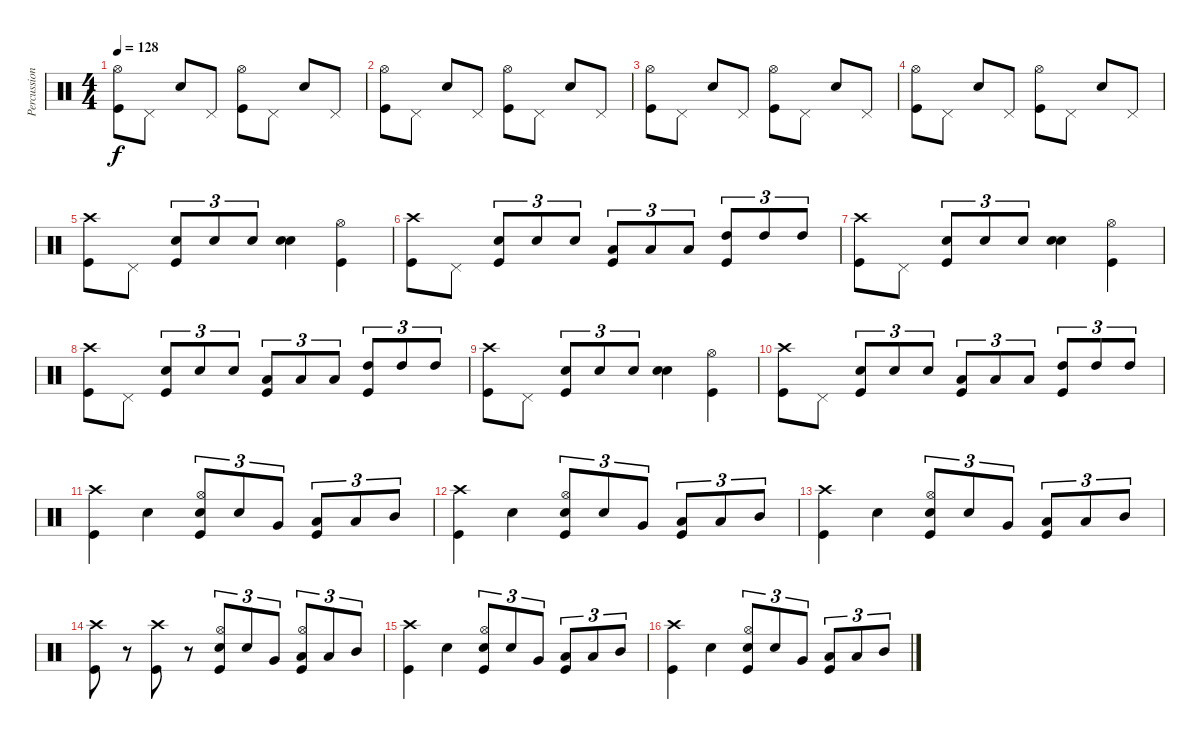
\track ("Percussion" "Percussion") {instrument percussion}
\staff {score}
\articulation defaults
\ts (4 4)
\tempo 128
\clef neutral
\ks c
("Kick (hit)" "Hi-Hat (open)").8{dy f} "Pedal Hi-Hat (hit)".8 "Snare (hit) 2".8 "Pedal Hi-Hat (hit)".8 ("Kick (hit)" "Hi-Hat (open)").8 "Pedal Hi-Hat (hit)".8 "Snare (hit) 2".8 "Pedal Hi-Hat (hit)".8 |
("Kick (hit)" "Hi-Hat (open)").8 "Pedal Hi-Hat (hit)".8 "Snare (hit) 2".8 "Pedal Hi-Hat (hit)".8 ("Kick (hit)" "Hi-Hat (open)").8 "Pedal Hi-Hat (hit)".8 "Snare (hit) 2".8 "Pedal Hi-Hat (hit)".8 |
("Kick (hit)" "Hi-Hat (open)").8 "Pedal Hi-Hat (hit)".8 "Snare (hit) 2".8 "Pedal Hi-Hat (hit)".8 ("Kick (hit)" "Hi-Hat (open)").8 "Pedal Hi-Hat (hit)".8 "Snare (hit) 2".8 "Pedal Hi-Hat (hit)".8 |
("Kick (hit)" "Hi-Hat (open)").8 "Pedal Hi-Hat (hit)".8 "Snare (hit) 2".8 "Pedal Hi-Hat (hit)".8 ("Kick (hit)" "Hi-Hat (open)").8 "Pedal Hi-Hat (hit)".8 "Snare (hit) 2".8 "Pedal Hi-Hat (hit)".8 |
("Kick (hit)" "Crash high (hit)").8 "Pedal Hi-Hat (hit)".8 ("Snare (hit) 2" "Kick (hit)").8{tu (3 2)} "Snare (hit) 2".8{tu (3 2)} "Snare (hit) 2".8{tu (3 2)} ("Snare (hit) 2" "Snare (hit) 2").4 ("Kick (hit)" "Hi-Hat (open)").4 |
("Kick (hit)" "Crash high (hit)").8 "Pedal Hi-Hat (hit)".8 ("Snare (hit) 2" "Kick (hit)").8{tu (3 2)} "Snare (hit) 2".8{tu (3 2)} "Snare (hit) 2".8{tu (3 2)} ("Low Tom (hit)" "Kick (hit)").8{tu (3 2)} "Low Tom (hit)".8{tu (3 2)} "Low Tom (hit)".8{tu (3 2)} ("High Tom (hit)" "Kick (hit)").8{tu (3 2)} "High Tom (hit)".8{tu (3 2)} "High Tom (hit)".8{tu (3 2)} |
("Kick (hit)" "Crash high (hit)").8 "Pedal Hi-Hat (hit)".8 ("Snare (hit) 2" "Kick (hit)").8{tu (3 2)} "Snare (hit) 2".8{tu (3 2)} "Snare (hit) 2".8{tu (3 2)} ("Snare (hit) 2" "Snare (hit) 2").4 ("Kick (hit)" "Hi-Hat (open)").4 |
("Kick (hit)" "Crash high (hit)").8 "Pedal Hi-Hat (hit)".8 ("Snare (hit) 2" "Kick (hit)").8{tu (3 2)} "Snare (hit) 2".8{tu (3 2)} "Snare (hit) 2".8{tu (3 2)} ("Low Tom (hit)" "Kick (hit)").8{tu (3 2)} "Low Tom (hit)".8{tu (3 2)} "Low Tom (hit)".8{tu (3 2)} ("High Tom (hit)" "Kick (hit)").8{tu (3 2)} "High Tom (hit)".8{tu (3 2)} "High Tom (hit)".8{tu (3 2)} |
("Kick (hit)" "Crash high (hit)").8 "Pedal Hi-Hat (hit)".8 ("Snare (hit) 2" "Kick (hit)").8{tu (3 2)} "Snare (hit) 2".8{tu (3 2)} "Snare (hit) 2".8{tu (3 2)} ("Snare (hit) 2" "Snare (hit) 2").4 ("Kick (hit)" "Hi-Hat (open)").4 |
("Kick (hit)" "Crash high (hit)").8 "Pedal Hi-Hat (hit)".8 ("Snare (hit) 2" "Kick (hit)").8{tu (3 2)} "Snare (hit) 2".8{tu (3 2)} "Snare (hit) 2".8{tu (3 2)} ("Low Tom (hit)" "Kick (hit)").8{tu (3 2)} "Low Tom (hit)".8{tu (3 2)} "Low Tom (hit)".8{tu (3 2)} ("High Tom (hit)" "Kick (hit)").8{tu (3 2)} "High Tom (hit)".8{tu (3 2)} "High Tom (hit)".8{tu (3 2)} |
("Kick (hit)" "Crash high (hit)").4 "Snare (hit) 2".4 ("Kick (hit)" "Snare (hit) 2" "Hi-Hat (open)").8{tu (3 2)} "Snare (hit) 2".8{tu (3 2)} "Very Low Tom (hit)".8{tu (3 2)} ("Kick (hit)" "Low Tom (hit)").8{tu (3 2)} "Low Tom (hit)".8{tu (3 2)} "Mid Tom (hit)".8{tu (3 2)} |
("Kick (hit)" "Crash high (hit)").4 "Snare (hit) 2".4 ("Kick (hit)" "Snare (hit) 2" "Hi-Hat (open)").8{tu (3 2)} "Snare (hit) 2".8{tu (3 2)} "Very Low Tom (hit)".8{tu (3 2)} ("Kick (hit)" "Low Tom (hit)").8{tu (3 2)} "Low Tom (hit)".8{tu (3 2)} "Mid Tom (hit)".8{tu (3 2)} |
("Kick (hit)" "Crash high (hit)").4 "Snare (hit) 2".4 ("Kick (hit)" "Snare (hit) 2" "Hi-Hat (open)").8{tu (3 2)} "Snare (hit) 2".8{tu (3 2)} "Very Low Tom (hit)".8{tu (3 2)} ("Kick (hit)" "Low Tom (hit)").8{tu (3 2)} "Low Tom (hit)".8{tu (3 2)} "Mid Tom (hit)".8{tu (3 2)} |
("Kick (hit)" "Crash high (hit)").8 r.8 ("Kick (hit)" "Crash high (hit)").8 r.8 ("Snare (hit) 2" "Kick (hit)" "Hi-Hat (open)").8{tu (3 2)} "Snare (hit) 2".8{tu (3 2)} "Very Low Tom (hit)".8{tu (3 2)} ("Low Tom (hit)" "Kick (hit)" "Hi-Hat (open)").8{tu (3 2)} "Low Tom (hit)".8{tu (3 2)} "Mid Tom (hit)".8{tu (3 2)} |
("Kick (hit)" "Crash high (hit)").4 "Snare (hit) 2".4 ("Kick (hit)" "Snare (hit) 2" "Hi-Hat (open)").8{tu (3 2)} "Snare (hit) 2".8{tu (3 2)} "Very Low Tom (hit)".8{tu (3 2)} ("Kick (hit)" "Low Tom (hit)").8{tu (3 2)} "Low Tom (hit)".8{tu (3 2)} "Mid Tom (hit)".8{tu (3 2)} |
("Kick (hit)" "Crash high (hit)").4 "Snare (hit) 2".4 ("Kick (hit)" "Snare (hit) 2" "Hi-Hat (open)").8{tu (3 2)} "Snare (hit) 2".8{tu (3 2)} "Very Low Tom (hit)".8{tu (3 2)} ("Kick (hit)" "Low Tom (hit)").8{tu (3 2)} "Low Tom (hit)".8{tu (3 2)} "Mid Tom (hit)".8{tu (3 2)}
